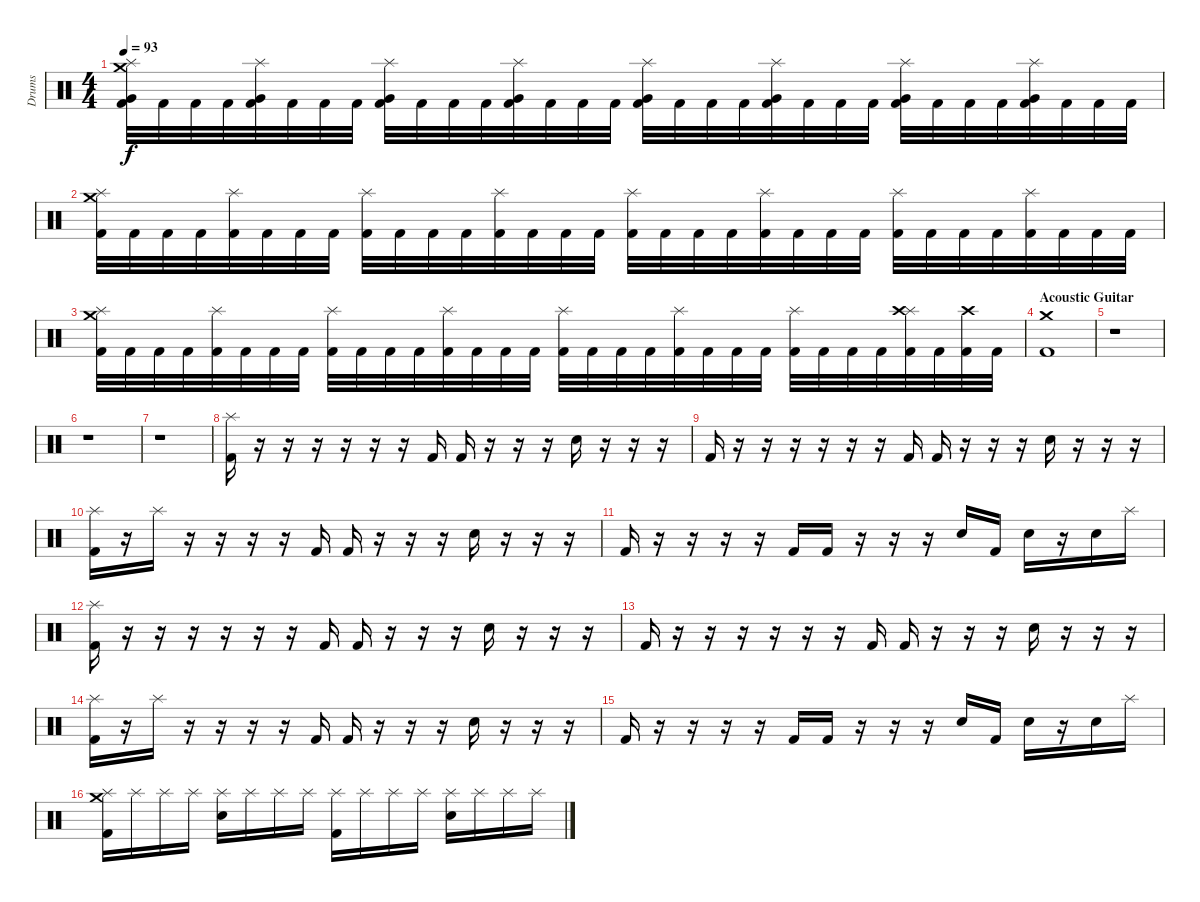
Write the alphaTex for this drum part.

\track ("Drums" "Drums") {instrument percussion}
\staff {score}
\articulation defaults
\ts (4 4)
\tempo 93
\clef neutral
\ks c
("Splash (hit)" "Crash medium (hit)" "Very Low Tom (hit)" "Kick (hit) 2").32{dy f} "Kick (hit) 2".32 "Kick (hit) 2".32 "Kick (hit) 2".32 ("Splash (hit)" "Very Low Tom (hit)" "Kick (hit) 2").32 "Kick (hit) 2".32 "Kick (hit) 2".32 "Kick (hit) 2".32 ("Splash (hit)" "Very Low Tom (hit)" "Kick (hit) 2").32 "Kick (hit) 2".32 "Kick (hit) 2".32 "Kick (hit) 2".32 ("Splash (hit)" "Very Low Tom (hit)" "Kick (hit) 2").32 "Kick (hit) 2".32 "Kick (hit) 2".32 "Kick (hit) 2".32 ("Splash (hit)" "Very Low Tom (hit)" "Kick (hit) 2").32 "Kick (hit) 2".32 "Kick (hit) 2".32 "Kick (hit) 2".32 ("Splash (hit)" "Very Low Tom (hit)" "Kick (hit) 2").32 "Kick (hit) 2".32 "Kick (hit) 2".32 "Kick (hit) 2".32 ("Splash (hit)" "Very Low Tom (hit)" "Kick (hit) 2").32 "Kick (hit) 2".32 "Kick (hit) 2".32 "Kick (hit) 2".32 ("Splash (hit)" "Very Low Tom (hit)" "Kick (hit) 2").32 "Kick (hit) 2".32 "Kick (hit) 2".32 "Kick (hit) 2".32 |
("Splash (hit)" "Crash medium (hit)" "Kick (hit) 2").32 "Kick (hit) 2".32 "Kick (hit) 2".32 "Kick (hit) 2".32 ("Splash (hit)" "Kick (hit) 2").32 "Kick (hit) 2".32 "Kick (hit) 2".32 "Kick (hit) 2".32 ("Splash (hit)" "Kick (hit) 2").32 "Kick (hit) 2".32 "Kick (hit) 2".32 "Kick (hit) 2".32 ("Splash (hit)" "Kick (hit) 2").32 "Kick (hit) 2".32 "Kick (hit) 2".32 "Kick (hit) 2".32 ("Splash (hit)" "Kick (hit) 2").32 "Kick (hit) 2".32 "Kick (hit) 2".32 "Kick (hit) 2".32 ("Splash (hit)" "Kick (hit) 2").32 "Kick (hit) 2".32 "Kick (hit) 2".32 "Kick (hit) 2".32 ("Splash (hit)" "Kick (hit) 2").32 "Kick (hit) 2".32 "Kick (hit) 2".32 "Kick (hit) 2".32 ("Splash (hit)" "Kick (hit) 2").32 "Kick (hit) 2".32 "Kick (hit) 2".32 "Kick (hit) 2".32 |
("Splash (hit)" "Crash medium (hit)" "Kick (hit) 2").32 "Kick (hit) 2".32 "Kick (hit) 2".32 "Kick (hit) 2".32 ("Splash (hit)" "Kick (hit) 2").32 "Kick (hit) 2".32 "Kick (hit) 2".32 "Kick (hit) 2".32 ("Splash (hit)" "Kick (hit) 2").32 "Kick (hit) 2".32 "Kick (hit) 2".32 "Kick (hit) 2".32 ("Splash (hit)" "Kick (hit) 2").32 "Kick (hit) 2".32 "Kick (hit) 2".32 "Kick (hit) 2".32 ("Splash (hit)" "Kick (hit) 2").32 "Kick (hit) 2".32 "Kick (hit) 2".32 "Kick (hit) 2".32 ("Splash (hit)" "Kick (hit) 2").32 "Kick (hit) 2".32 "Kick (hit) 2".32 "Kick (hit) 2".32 ("Splash (hit)" "Kick (hit) 2").32 "Kick (hit) 2".32 "Kick (hit) 2".32 "Kick (hit) 2".32 ("Splash (hit)" "Crash high (hit)" "Kick (hit) 2").32 "Kick (hit) 2".32 ("Crash high (hit)" "Kick (hit) 2").32 "Kick (hit) 2".32 |
\section ("" "Acoustic Guitar")
("Crash medium (hit)" "Kick (hit) 2").1 |
r.1 |
r.1 |
r.1 |
("Splash (hit)" "Kick (hit) 2").16 r.16 r.16 r.16 r.16 r.16 r.16 "Kick (hit) 2".16 "Kick (hit) 2".16 r.16 r.16 r.16 "Snare (hit) 2".16 r.16 r.16 r.16 |
"Kick (hit) 2".16 r.16 r.16 r.16 r.16 r.16 r.16 "Kick (hit) 2".16 "Kick (hit) 2".16 r.16 r.16 r.16 "Snare (hit) 2".16 r.16 r.16 r.16 |
("Splash (hit)" "Kick (hit) 2").16 r.16 "Splash (hit)".16 r.16 r.16 r.16 r.16 "Kick (hit) 2".16 "Kick (hit) 2".16 r.16 r.16 r.16 "Snare (hit) 2".16 r.16 r.16 r.16 |
"Kick (hit) 2".16 r.16 r.16 r.16 r.16 "Kick (hit) 2".16 "Kick (hit) 2".16 r.16 r.16 r.16 "Snare (hit) 2".16 "Kick (hit) 2".16 "Snare (hit) 2".16 r.16 "Snare (hit) 2".16 "Splash (hit)".16 |
("Splash (hit)" "Kick (hit) 2").16 r.16 r.16 r.16 r.16 r.16 r.16 "Kick (hit) 2".16 "Kick (hit) 2".16 r.16 r.16 r.16 "Snare (hit) 2".16 r.16 r.16 r.16 |
"Kick (hit) 2".16 r.16 r.16 r.16 r.16 r.16 r.16 "Kick (hit) 2".16 "Kick (hit) 2".16 r.16 r.16 r.16 "Snare (hit) 2".16 r.16 r.16 r.16 |
("Splash (hit)" "Kick (hit) 2").16 r.16 "Splash (hit)".16 r.16 r.16 r.16 r.16 "Kick (hit) 2".16 "Kick (hit) 2".16 r.16 r.16 r.16 "Snare (hit) 2".16 r.16 r.16 r.16 |
"Kick (hit) 2".16 r.16 r.16 r.16 r.16 "Kick (hit) 2".16 "Kick (hit) 2".16 r.16 r.16 r.16 "Snare (hit) 2".16 "Kick (hit) 2".16 "Snare (hit) 2".16 r.16 "Snare (hit) 2".16 "Splash (hit)".16 |
("Splash (hit)" "Crash medium (hit)" "Kick (hit) 2").16 "Splash (hit)".16 "Splash (hit)".16 "Splash (hit)".16 ("Splash (hit)" "Snare (hit) 2").16 "Splash (hit)".16 "Splash (hit)".16 "Splash (hit)".16 ("Splash (hit)" "Kick (hit) 2").16 "Splash (hit)".16 "Splash (hit)".16 "Splash (hit)".16 ("Splash (hit)" "Snare (hit) 2").16 "Splash (hit)".16 "Splash (hit)".16 "Splash (hit)".16
